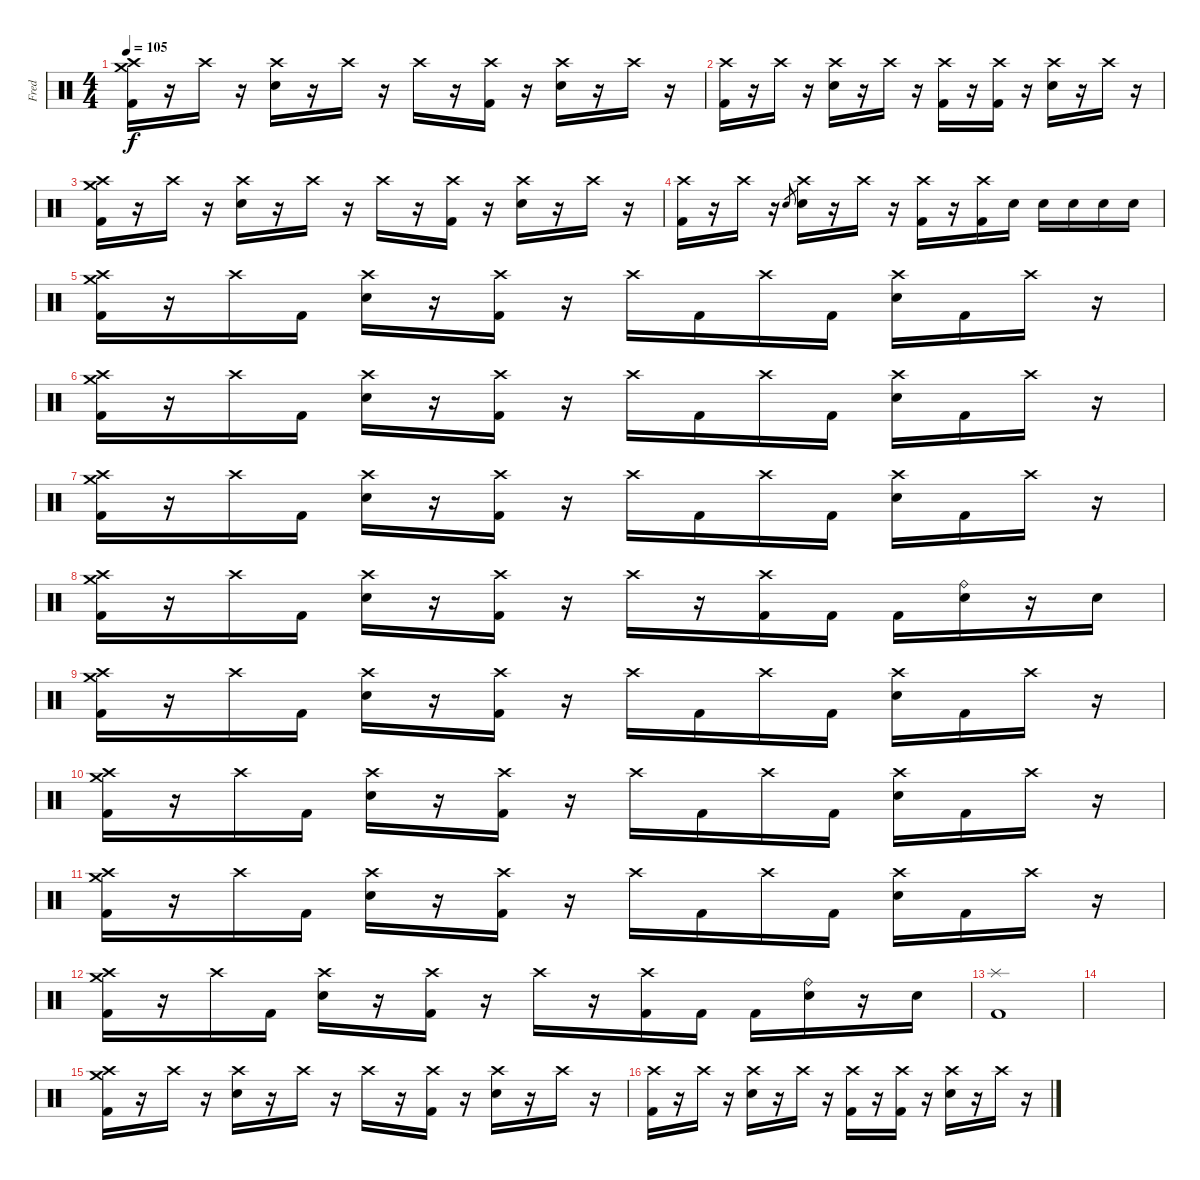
\track ("Fred" "Fred") {instrument percussion}
\staff {score}
\articulation defaults
\ts (4 4)
\tempo 105
\clef neutral
\ks c
("Crash high (hit)" "Crash medium (hit)" "Kick (hit) 2").16{dy f} r.16 "Crash high (hit)".16 r.16 ("Crash high (hit)" "Electric Snare (hit)").16 r.16 "Crash high (hit)".16 r.16 "Crash high (hit)".16 r.16 ("Crash high (hit)" "Kick (hit) 2").16 r.16 ("Crash high (hit)" "Electric Snare (hit)").16 r.16 "Crash high (hit)".16 r.16 |
("Crash high (hit)" "Kick (hit) 2").16 r.16 "Crash high (hit)".16 r.16 ("Crash high (hit)" "Electric Snare (hit)").16 r.16 "Crash high (hit)".16 r.16 ("Crash high (hit)" "Kick (hit) 2").16 r.16 ("Crash high (hit)" "Kick (hit) 2").16 r.16 ("Crash high (hit)" "Electric Snare (hit)").16 r.16 "Crash high (hit)".16 r.16 |
("Crash high (hit)" "Crash medium (hit)" "Kick (hit) 2").16 r.16 "Crash high (hit)".16 r.16 ("Crash high (hit)" "Electric Snare (hit)").16 r.16 "Crash high (hit)".16 r.16 "Crash high (hit)".16 r.16 ("Crash high (hit)" "Kick (hit) 2").16 r.16 ("Crash high (hit)" "Electric Snare (hit)").16 r.16 "Crash high (hit)".16 r.16 |
("Crash high (hit)" "Kick (hit) 2").16 r.16 "Crash high (hit)".16 r.16 "Electric Snare (hit)".8{gr} ("Crash high (hit)" "Electric Snare (hit)").16 r.16 "Crash high (hit)".16 r.16 ("Crash high (hit)" "Kick (hit) 2").16 r.16 ("Crash high (hit)" "Kick (hit) 2").16 "Electric Snare (hit)".16 "Electric Snare (hit)".16 "Electric Snare (hit)".16 "Electric Snare (hit)".16 "Electric Snare (hit)".16 |
("Crash medium (hit)" "Crash high (hit)" "Kick (hit) 2").16 r.16 "Crash high (hit)".16 "Kick (hit) 2".16 ("Crash high (hit)" "Electric Snare (hit)").16 r.16 ("Crash high (hit)" "Kick (hit) 2").16 r.16 "Crash high (hit)".16 "Kick (hit) 2".16 "Crash high (hit)".16 "Kick (hit) 2".16 ("Crash high (hit)" "Electric Snare (hit)").16 "Kick (hit) 2".16 "Crash high (hit)".16 r.16 |
("Crash medium (hit)" "Crash high (hit)" "Kick (hit) 2").16 r.16 "Crash high (hit)".16 "Kick (hit) 2".16 ("Crash high (hit)" "Electric Snare (hit)").16 r.16 ("Crash high (hit)" "Kick (hit) 2").16 r.16 "Crash high (hit)".16 "Kick (hit) 2".16 "Crash high (hit)".16 "Kick (hit) 2".16 ("Crash high (hit)" "Electric Snare (hit)").16 "Kick (hit) 2".16 "Crash high (hit)".16 r.16 |
("Crash medium (hit)" "Crash high (hit)" "Kick (hit) 2").16 r.16 "Crash high (hit)".16 "Kick (hit) 2".16 ("Crash high (hit)" "Electric Snare (hit)").16 r.16 ("Crash high (hit)" "Kick (hit) 2").16 r.16 "Crash high (hit)".16 "Kick (hit) 2".16 "Crash high (hit)".16 "Kick (hit) 2".16 ("Crash high (hit)" "Electric Snare (hit)").16 "Kick (hit) 2".16 "Crash high (hit)".16 r.16 |
("Crash high (hit)" "Crash medium (hit)" "Kick (hit) 2").16 r.16 "Crash high (hit)".16 "Kick (hit) 2".16 ("Crash high (hit)" "Electric Snare (hit)").16 r.16 ("Crash high (hit)" "Kick (hit) 2").16 r.16 "Crash high (hit)".16 r.16 ("Crash high (hit)" "Kick (hit) 2").16 "Kick (hit) 2".16 "Kick (hit) 2".16 ("Ride (bell)" "Electric Snare (hit)").16 r.16 "Electric Snare (hit)".16 |
("Crash medium (hit)" "Crash high (hit)" "Kick (hit) 2").16 r.16 "Crash high (hit)".16 "Kick (hit) 2".16 ("Crash high (hit)" "Electric Snare (hit)").16 r.16 ("Crash high (hit)" "Kick (hit) 2").16 r.16 "Crash high (hit)".16 "Kick (hit) 2".16 "Crash high (hit)".16 "Kick (hit) 2".16 ("Crash high (hit)" "Electric Snare (hit)").16 "Kick (hit) 2".16 "Crash high (hit)".16 r.16 |
("Crash medium (hit)" "Crash high (hit)" "Kick (hit) 2").16 r.16 "Crash high (hit)".16 "Kick (hit) 2".16 ("Crash high (hit)" "Electric Snare (hit)").16 r.16 ("Crash high (hit)" "Kick (hit) 2").16 r.16 "Crash high (hit)".16 "Kick (hit) 2".16 "Crash high (hit)".16 "Kick (hit) 2".16 ("Crash high (hit)" "Electric Snare (hit)").16 "Kick (hit) 2".16 "Crash high (hit)".16 r.16 |
("Crash medium (hit)" "Crash high (hit)" "Kick (hit) 2").16 r.16 "Crash high (hit)".16 "Kick (hit) 2".16 ("Crash high (hit)" "Electric Snare (hit)").16 r.16 ("Crash high (hit)" "Kick (hit) 2").16 r.16 "Crash high (hit)".16 "Kick (hit) 2".16 "Crash high (hit)".16 "Kick (hit) 2".16 ("Crash high (hit)" "Electric Snare (hit)").16 "Kick (hit) 2".16 "Crash high (hit)".16 r.16 |
("Crash high (hit)" "Crash medium (hit)" "Kick (hit) 2").16 r.16 "Crash high (hit)".16 "Kick (hit) 2".16 ("Crash high (hit)" "Electric Snare (hit)").16 r.16 ("Crash high (hit)" "Kick (hit) 2").16 r.16 "Crash high (hit)".16 r.16 ("Crash high (hit)" "Kick (hit) 2").16 "Kick (hit) 2".16 "Kick (hit) 2".16 ("Ride (bell)" "Electric Snare (hit)").16 r.16 "Electric Snare (hit)".16 |
("Splash (hit)" "Kick (hit) 2").1 |
|
("Crash high (hit)" "Crash medium (hit)" "Kick (hit) 2").16 r.16 "Crash high (hit)".16 r.16 ("Crash high (hit)" "Electric Snare (hit)").16 r.16 "Crash high (hit)".16 r.16 "Crash high (hit)".16 r.16 ("Crash high (hit)" "Kick (hit) 2").16 r.16 ("Crash high (hit)" "Electric Snare (hit)").16 r.16 "Crash high (hit)".16 r.16 |
("Crash high (hit)" "Kick (hit) 2").16 r.16 "Crash high (hit)".16 r.16 ("Crash high (hit)" "Electric Snare (hit)").16 r.16 "Crash high (hit)".16 r.16 ("Crash high (hit)" "Kick (hit) 2").16 r.16 ("Crash high (hit)" "Kick (hit) 2").16 r.16 ("Crash high (hit)" "Electric Snare (hit)").16 r.16 "Crash high (hit)".16 r.16
